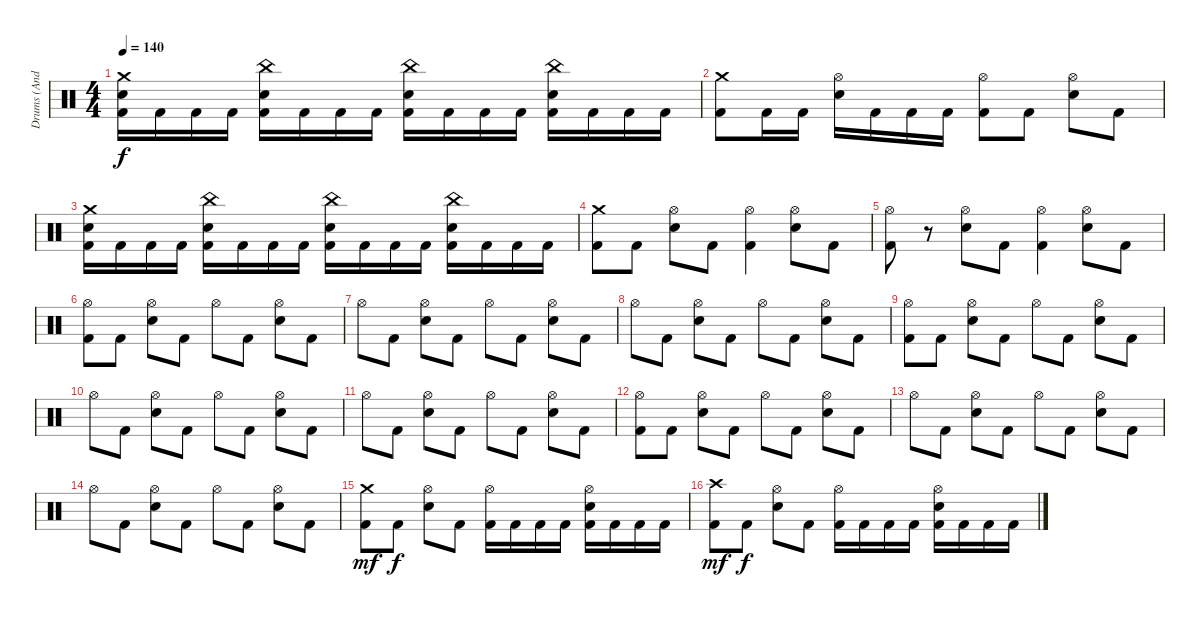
\track ("Drums (Andy C)" "Drums (And") {instrument percussion}
\staff {score}
\articulation defaults
\ts (4 4)
\tempo 140
\clef neutral
\ks c
("Crash medium (hit)" "Kick (hit) 2" "Electric Snare (hit)").16{dy f} "Kick (hit) 2".16 "Kick (hit) 2".16 "Kick (hit) 2".16 ("China (hit)" "Kick (hit) 2" "Electric Snare (hit)").16 "Kick (hit) 2".16 "Kick (hit) 2".16 "Kick (hit) 2".16 ("China (hit)" "Kick (hit) 2" "Electric Snare (hit)").16 "Kick (hit) 2".16 "Kick (hit) 2".16 "Kick (hit) 2".16 ("China (hit)" "Kick (hit) 2" "Electric Snare (hit)").16 "Kick (hit) 2".16 "Kick (hit) 2".16 "Kick (hit) 2".16 |
("Crash medium (hit)" "Kick (hit) 2").8 "Kick (hit) 2".16 "Kick (hit) 2".16 ("Hi-Hat (open)" "Electric Snare (hit)").16 "Kick (hit) 2".16 "Kick (hit) 2".16 "Kick (hit) 2".16 ("Hi-Hat (open)" "Kick (hit) 2").8 "Kick (hit) 2".8 ("Hi-Hat (open)" "Electric Snare (hit)").8 "Kick (hit) 2".8 |
("Crash medium (hit)" "Kick (hit) 2" "Electric Snare (hit)").16 "Kick (hit) 2".16 "Kick (hit) 2".16 "Kick (hit) 2".16 ("China (hit)" "Kick (hit) 2" "Electric Snare (hit)").16 "Kick (hit) 2".16 "Kick (hit) 2".16 "Kick (hit) 2".16 ("China (hit)" "Kick (hit) 2" "Electric Snare (hit)").16 "Kick (hit) 2".16 "Kick (hit) 2".16 "Kick (hit) 2".16 ("China (hit)" "Kick (hit) 2" "Electric Snare (hit)").16 "Kick (hit) 2".16 "Kick (hit) 2".16 "Kick (hit) 2".16 |
("Crash medium (hit)" "Kick (hit) 2").8 "Kick (hit) 2".8 ("Hi-Hat (open)" "Electric Snare (hit)").8 "Kick (hit) 2".8 ("Hi-Hat (open)" "Kick (hit) 2").4 ("Hi-Hat (open)" "Electric Snare (hit)").8 "Kick (hit) 2".8 |
("Hi-Hat (open)" "Kick (hit) 2").8 r.8 ("Hi-Hat (open)" "Electric Snare (hit)").8 "Kick (hit) 2".8 ("Hi-Hat (open)" "Kick (hit) 2").4 ("Hi-Hat (open)" "Electric Snare (hit)").8 "Kick (hit) 2".8 |
("Hi-Hat (open)" "Kick (hit) 2").8 "Kick (hit) 2".8 ("Hi-Hat (open)" "Electric Snare (hit)").8 "Kick (hit) 2".8 "Hi-Hat (open)".8 "Kick (hit) 2".8 ("Hi-Hat (open)" "Electric Snare (hit)").8 "Kick (hit) 2".8 |
"Hi-Hat (open)".8 "Kick (hit) 2".8 ("Hi-Hat (open)" "Electric Snare (hit)").8 "Kick (hit) 2".8 "Hi-Hat (open)".8 "Kick (hit) 2".8 ("Hi-Hat (open)" "Electric Snare (hit)").8 "Kick (hit) 2".8 |
"Hi-Hat (open)".8 "Kick (hit) 2".8 ("Hi-Hat (open)" "Electric Snare (hit)").8 "Kick (hit) 2".8 "Hi-Hat (open)".8 "Kick (hit) 2".8 ("Hi-Hat (open)" "Electric Snare (hit)").8 "Kick (hit) 2".8 |
("Hi-Hat (open)" "Kick (hit) 2").8 "Kick (hit) 2".8 ("Hi-Hat (open)" "Electric Snare (hit)").8 "Kick (hit) 2".8 "Hi-Hat (open)".8 "Kick (hit) 2".8 ("Hi-Hat (open)" "Electric Snare (hit)").8 "Kick (hit) 2".8 |
"Hi-Hat (open)".8 "Kick (hit) 2".8 ("Hi-Hat (open)" "Electric Snare (hit)").8 "Kick (hit) 2".8 "Hi-Hat (open)".8 "Kick (hit) 2".8 ("Hi-Hat (open)" "Electric Snare (hit)").8 "Kick (hit) 2".8 |
"Hi-Hat (open)".8 "Kick (hit) 2".8 ("Hi-Hat (open)" "Electric Snare (hit)").8 "Kick (hit) 2".8 "Hi-Hat (open)".8 "Kick (hit) 2".8 ("Hi-Hat (open)" "Electric Snare (hit)").8 "Kick (hit) 2".8 |
("Hi-Hat (open)" "Kick (hit) 2").8 "Kick (hit) 2".8 ("Hi-Hat (open)" "Electric Snare (hit)").8 "Kick (hit) 2".8 "Hi-Hat (open)".8 "Kick (hit) 2".8 ("Hi-Hat (open)" "Electric Snare (hit)").8 "Kick (hit) 2".8 |
"Hi-Hat (open)".8 "Kick (hit) 2".8 ("Hi-Hat (open)" "Electric Snare (hit)").8 "Kick (hit) 2".8 "Hi-Hat (open)".8 "Kick (hit) 2".8 ("Hi-Hat (open)" "Electric Snare (hit)").8 "Kick (hit) 2".8 |
"Hi-Hat (open)".8 "Kick (hit) 2".8 ("Hi-Hat (open)" "Electric Snare (hit)").8 "Kick (hit) 2".8 "Hi-Hat (open)".8 "Kick (hit) 2".8 ("Hi-Hat (open)" "Electric Snare (hit)").8 "Kick (hit) 2".8 |
("Crash medium (hit)" "Kick (hit) 2").8{dy mf} "Kick (hit) 2".8{dy f} ("Hi-Hat (open)" "Electric Snare (hit)").8 "Kick (hit) 2".8 ("Hi-Hat (open)" "Kick (hit) 2").16 "Kick (hit) 2".16 "Kick (hit) 2".16 "Kick (hit) 2".16 ("Hi-Hat (open)" "Kick (hit) 2" "Electric Snare (hit)").16 "Kick (hit) 2".16 "Kick (hit) 2".16 "Kick (hit) 2".16 |
("Crash high (hit)" "Kick (hit) 2").8{dy mf} "Kick (hit) 2".8{dy f} ("Hi-Hat (open)" "Electric Snare (hit)").8 "Kick (hit) 2".8 ("Hi-Hat (open)" "Kick (hit) 2").16 "Kick (hit) 2".16 "Kick (hit) 2".16 "Kick (hit) 2".16 ("Hi-Hat (open)" "Kick (hit) 2" "Electric Snare (hit)").16 "Kick (hit) 2".16 "Kick (hit) 2".16 "Kick (hit) 2".16
